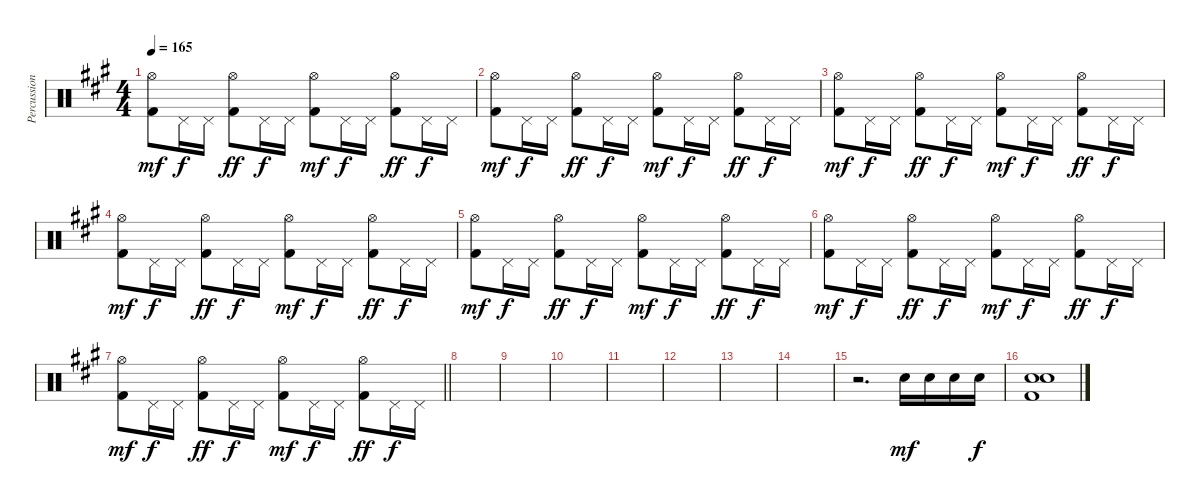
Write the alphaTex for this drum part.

\track ("Percussion" "Percussion") {instrument percussion}
\staff {score}
\articulation defaults
\ts (4 4)
\tempo 165
\clef neutral
\ks a
("Hi-Hat (open)" "Kick (hit) 2").8{dy mf} "Pedal Hi-Hat (hit)".16{dy f} "Pedal Hi-Hat (hit)".16 ("Hi-Hat (open)" "Kick (hit) 2").8{dy ff} "Pedal Hi-Hat (hit)".16{dy f} "Pedal Hi-Hat (hit)".16 ("Hi-Hat (open)" "Kick (hit) 2").8{dy mf} "Pedal Hi-Hat (hit)".16{dy f} "Pedal Hi-Hat (hit)".16 ("Hi-Hat (open)" "Kick (hit) 2").8{dy ff} "Pedal Hi-Hat (hit)".16{dy f} "Pedal Hi-Hat (hit)".16 |
("Hi-Hat (open)" "Kick (hit) 2").8{dy mf} "Pedal Hi-Hat (hit)".16{dy f} "Pedal Hi-Hat (hit)".16 ("Hi-Hat (open)" "Kick (hit) 2").8{dy ff} "Pedal Hi-Hat (hit)".16{dy f} "Pedal Hi-Hat (hit)".16 ("Hi-Hat (open)" "Kick (hit) 2").8{dy mf} "Pedal Hi-Hat (hit)".16{dy f} "Pedal Hi-Hat (hit)".16 ("Hi-Hat (open)" "Kick (hit) 2").8{dy ff} "Pedal Hi-Hat (hit)".16{dy f} "Pedal Hi-Hat (hit)".16 |
("Hi-Hat (open)" "Kick (hit) 2").8{dy mf} "Pedal Hi-Hat (hit)".16{dy f} "Pedal Hi-Hat (hit)".16 ("Hi-Hat (open)" "Kick (hit) 2").8{dy ff} "Pedal Hi-Hat (hit)".16{dy f} "Pedal Hi-Hat (hit)".16 ("Hi-Hat (open)" "Kick (hit) 2").8{dy mf} "Pedal Hi-Hat (hit)".16{dy f} "Pedal Hi-Hat (hit)".16 ("Hi-Hat (open)" "Kick (hit) 2").8{dy ff} "Pedal Hi-Hat (hit)".16{dy f} "Pedal Hi-Hat (hit)".16 |
("Hi-Hat (open)" "Kick (hit) 2").8{dy mf} "Pedal Hi-Hat (hit)".16{dy f} "Pedal Hi-Hat (hit)".16 ("Hi-Hat (open)" "Kick (hit) 2").8{dy ff} "Pedal Hi-Hat (hit)".16{dy f} "Pedal Hi-Hat (hit)".16 ("Hi-Hat (open)" "Kick (hit) 2").8{dy mf} "Pedal Hi-Hat (hit)".16{dy f} "Pedal Hi-Hat (hit)".16 ("Hi-Hat (open)" "Kick (hit) 2").8{dy ff} "Pedal Hi-Hat (hit)".16{dy f} "Pedal Hi-Hat (hit)".16 |
("Hi-Hat (open)" "Kick (hit) 2").8{dy mf} "Pedal Hi-Hat (hit)".16{dy f} "Pedal Hi-Hat (hit)".16 ("Hi-Hat (open)" "Kick (hit) 2").8{dy ff} "Pedal Hi-Hat (hit)".16{dy f} "Pedal Hi-Hat (hit)".16 ("Hi-Hat (open)" "Kick (hit) 2").8{dy mf} "Pedal Hi-Hat (hit)".16{dy f} "Pedal Hi-Hat (hit)".16 ("Hi-Hat (open)" "Kick (hit) 2").8{dy ff} "Pedal Hi-Hat (hit)".16{dy f} "Pedal Hi-Hat (hit)".16 |
("Hi-Hat (open)" "Kick (hit) 2").8{dy mf} "Pedal Hi-Hat (hit)".16{dy f} "Pedal Hi-Hat (hit)".16 ("Hi-Hat (open)" "Kick (hit) 2").8{dy ff} "Pedal Hi-Hat (hit)".16{dy f} "Pedal Hi-Hat (hit)".16 ("Hi-Hat (open)" "Kick (hit) 2").8{dy mf} "Pedal Hi-Hat (hit)".16{dy f} "Pedal Hi-Hat (hit)".16 ("Hi-Hat (open)" "Kick (hit) 2").8{dy ff} "Pedal Hi-Hat (hit)".16{dy f} "Pedal Hi-Hat (hit)".16 |
\barLineRight lightlight
("Hi-Hat (open)" "Kick (hit) 2").8{dy mf} "Pedal Hi-Hat (hit)".16{dy f} "Pedal Hi-Hat (hit)".16 ("Hi-Hat (open)" "Kick (hit) 2").8{dy ff} "Pedal Hi-Hat (hit)".16{dy f} "Pedal Hi-Hat (hit)".16 ("Hi-Hat (open)" "Kick (hit) 2").8{dy mf} "Pedal Hi-Hat (hit)".16{dy f} "Pedal Hi-Hat (hit)".16 ("Hi-Hat (open)" "Kick (hit) 2").8{dy ff} "Pedal Hi-Hat (hit)".16{dy f} "Pedal Hi-Hat (hit)".16 |
|
|
|
|
|
|
|
r.2{d} "Electric Snare (hit)".16{dy mf} "Electric Snare (hit)".16 "Electric Snare (hit)".16 "Electric Snare (hit)".16{dy f} |
("Electric Snare (hit)" "Electric Snare (hit)" "Kick (hit) 2").1
